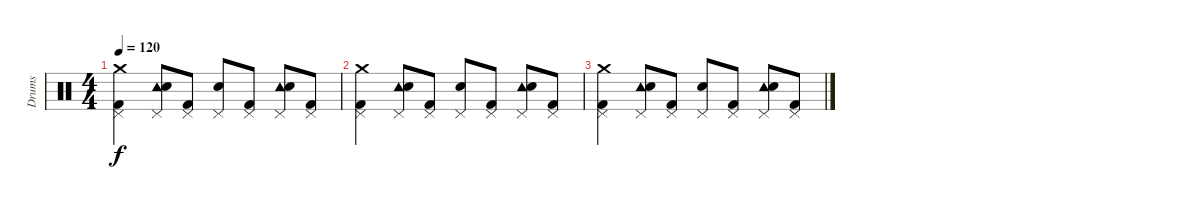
\track ("Drums" "Drums") {instrument percussion}
\staff {score}
\articulation defaults
\ts (4 4)
\tempo 120
\clef neutral
\ks c
("Crash medium (hit)" "Pedal Hi-Hat (hit)" "Kick (hit) 2").4{dy f} ("Tambourine (hit)" "Pedal Hi-Hat (hit)" "Electric Snare (hit)").8 ("Pedal Hi-Hat (hit)" "Kick (hit) 2").8 ("Pedal Hi-Hat (hit)" "Electric Snare (hit)").8 ("Pedal Hi-Hat (hit)" "Kick (hit) 2").8 ("Tambourine (hit)" "Pedal Hi-Hat (hit)" "Electric Snare (hit)").8 ("Pedal Hi-Hat (hit)" "Kick (hit) 2").8 |
("Crash medium (hit)" "Pedal Hi-Hat (hit)" "Kick (hit) 2").4 ("Tambourine (hit)" "Pedal Hi-Hat (hit)" "Electric Snare (hit)").8 ("Pedal Hi-Hat (hit)" "Kick (hit) 2").8 ("Pedal Hi-Hat (hit)" "Electric Snare (hit)").8 ("Pedal Hi-Hat (hit)" "Kick (hit) 2").8 ("Tambourine (hit)" "Pedal Hi-Hat (hit)" "Electric Snare (hit)").8 ("Pedal Hi-Hat (hit)" "Kick (hit) 2").8 |
("Crash medium (hit)" "Pedal Hi-Hat (hit)" "Kick (hit) 2").4 ("Tambourine (hit)" "Pedal Hi-Hat (hit)" "Electric Snare (hit)").8 ("Pedal Hi-Hat (hit)" "Kick (hit) 2").8 ("Pedal Hi-Hat (hit)" "Electric Snare (hit)").8 ("Pedal Hi-Hat (hit)" "Kick (hit) 2").8 ("Tambourine (hit)" "Pedal Hi-Hat (hit)" "Electric Snare (hit)").8 ("Pedal Hi-Hat (hit)" "Kick (hit) 2").8
